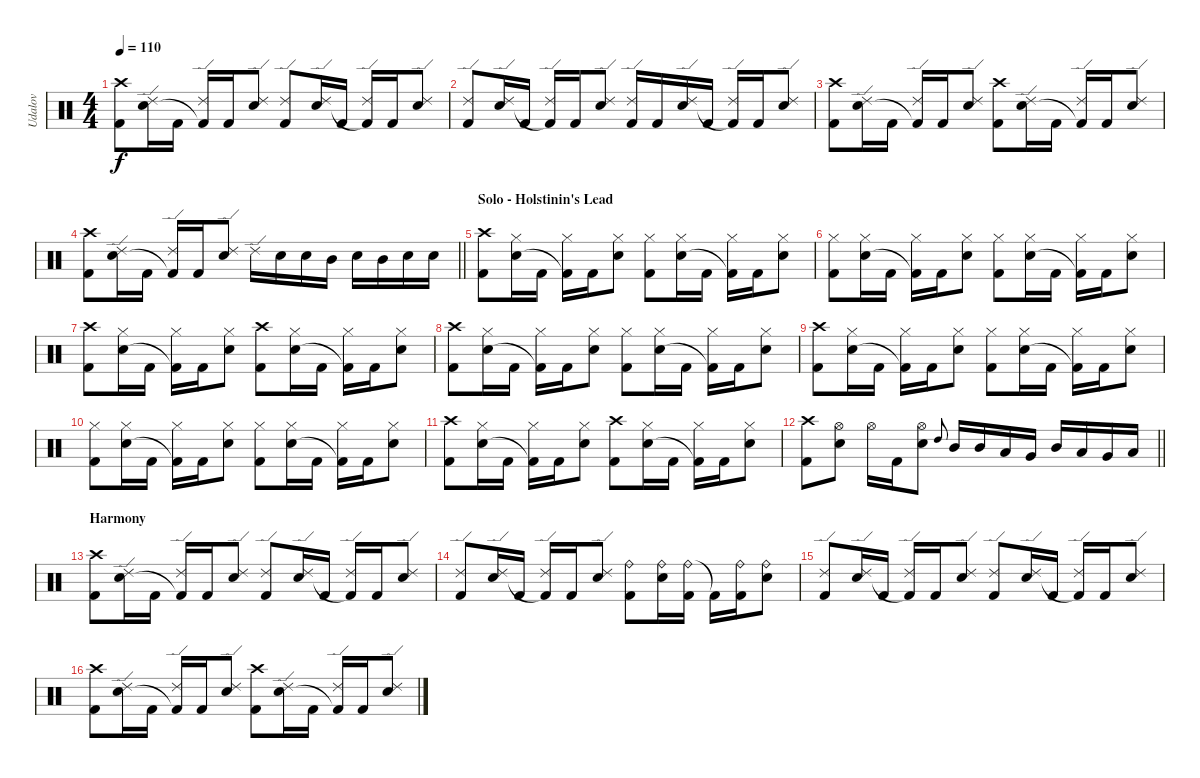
\track ("Udalov" "Udalov") {instrument percussion}
\staff {score}
\articulation defaults
\ts (4 4)
\tempo 110
\clef neutral
\ks c
("Crash high (hit)" "Kick (hit) 2").8{dy f} ("Ride (edge) 2" "Snare (hit) 2").16 "Kick (hit) 2".16 ("Ride (edge) 2" "Kick (hit) 2"{t}).16 "Kick (hit) 2".16 ("Ride (edge) 2" "Snare (hit) 2").8 ("Ride (edge) 2" "Kick (hit) 2").8 ("Ride (edge) 2" "Snare (hit) 2").16 "Kick (hit) 2".16 ("Ride (edge) 2" "Kick (hit) 2"{t}).16 "Kick (hit) 2".16 ("Ride (edge) 2" "Snare (hit) 2").8 |
("Ride (edge) 2" "Kick (hit) 2").8 ("Ride (edge) 2" "Snare (hit) 2").16 "Kick (hit) 2".16 ("Ride (edge) 2" "Kick (hit) 2"{t}).16 "Kick (hit) 2".16 ("Ride (edge) 2" "Snare (hit) 2").8 ("Ride (edge) 2" "Kick (hit) 2").16 "Kick (hit) 2".16 ("Ride (edge) 2" "Snare (hit) 2").16 "Kick (hit) 2".16 ("Ride (edge) 2" "Kick (hit) 2"{t}).16 "Kick (hit) 2".16 ("Ride (edge) 2" "Snare (hit) 2").8 |
("Crash high (hit)" "Kick (hit) 2").8 ("Ride (edge) 2" "Snare (hit) 2").16 "Kick (hit) 2".16 ("Ride (edge) 2" "Kick (hit) 2"{t}).16 "Kick (hit) 2".16 ("Ride (edge) 2" "Snare (hit) 2").8 ("Crash high (hit)" "Kick (hit) 2").8 ("Ride (edge) 2" "Snare (hit) 2").16 "Kick (hit) 2".16 ("Ride (edge) 2" "Kick (hit) 2"{t}).16 "Kick (hit) 2".16 ("Ride (edge) 2" "Snare (hit) 2").8 |
\barLineRight lightlight
("Crash high (hit)" "Kick (hit) 2").8 ("Ride (edge) 2" "Snare (hit) 2").16 "Kick (hit) 2".16 ("Ride (edge) 2" "Kick (hit) 2"{t}).16 "Kick (hit) 2".16 ("Ride (edge) 2" "Snare (hit) 2").8 "Ride (edge) 2".16 "Snare (hit) 2".16 "Snare (hit) 2".16 "Mid Tom (hit)".16 "Snare (hit) 2".16 "Mid Tom (hit)".16 "Snare (hit) 2".16 "Snare (hit) 2".16 |
\section ("" "Solo - Holstinin's Lead")
("Crash high (hit)" "Kick (hit) 2").8 ("Hi-Hat (closed)" "Snare (hit) 2").16 "Kick (hit) 2".16 ("Hi-Hat (closed)" "Kick (hit) 2"{t}).16 "Kick (hit) 2".16 ("Hi-Hat (closed)" "Snare (hit) 2").8 ("Hi-Hat (closed)" "Kick (hit) 2").8 ("Hi-Hat (closed)" "Snare (hit) 2").16 "Kick (hit) 2".16 ("Hi-Hat (closed)" "Kick (hit) 2"{t}).16 "Kick (hit) 2".16 ("Hi-Hat (closed)" "Snare (hit) 2").8 |
("Hi-Hat (closed)" "Kick (hit) 2").8 ("Hi-Hat (closed)" "Snare (hit) 2").16 "Kick (hit) 2".16 ("Hi-Hat (closed)" "Kick (hit) 2"{t}).16 "Kick (hit) 2".16 ("Hi-Hat (closed)" "Snare (hit) 2").8 ("Hi-Hat (closed)" "Kick (hit) 2").8 ("Hi-Hat (closed)" "Snare (hit) 2").16 "Kick (hit) 2".16 ("Hi-Hat (closed)" "Kick (hit) 2"{t}).16 "Kick (hit) 2".16 ("Hi-Hat (closed)" "Snare (hit) 2").8 |
("Crash high (hit)" "Kick (hit) 2").8 ("Hi-Hat (closed)" "Snare (hit) 2").16 "Kick (hit) 2".16 ("Hi-Hat (closed)" "Kick (hit) 2"{t}).16 "Kick (hit) 2".16 ("Hi-Hat (closed)" "Snare (hit) 2").8 ("Crash high (hit)" "Kick (hit) 2").8 ("Hi-Hat (closed)" "Snare (hit) 2").16 "Kick (hit) 2".16 ("Hi-Hat (closed)" "Kick (hit) 2"{t}).16 "Kick (hit) 2".16 ("Hi-Hat (closed)" "Snare (hit) 2").8 |
("Crash high (hit)" "Kick (hit) 2").8 ("Hi-Hat (closed)" "Snare (hit) 2").16 "Kick (hit) 2".16 ("Hi-Hat (closed)" "Kick (hit) 2"{t}).16 "Kick (hit) 2".16 ("Hi-Hat (closed)" "Snare (hit) 2").8 ("Hi-Hat (closed)" "Kick (hit) 2").8 ("Hi-Hat (closed)" "Snare (hit) 2").16 "Kick (hit) 2".16 ("Hi-Hat (closed)" "Kick (hit) 2"{t}).16 "Kick (hit) 2".16 ("Hi-Hat (closed)" "Snare (hit) 2").8 |
("Crash high (hit)" "Kick (hit) 2").8 ("Hi-Hat (closed)" "Snare (hit) 2").16 "Kick (hit) 2".16 ("Hi-Hat (closed)" "Kick (hit) 2"{t}).16 "Kick (hit) 2".16 ("Hi-Hat (closed)" "Snare (hit) 2").8 ("Hi-Hat (closed)" "Kick (hit) 2").8 ("Hi-Hat (closed)" "Snare (hit) 2").16 "Kick (hit) 2".16 ("Hi-Hat (closed)" "Kick (hit) 2"{t}).16 "Kick (hit) 2".16 ("Hi-Hat (closed)" "Snare (hit) 2").8 |
("Hi-Hat (closed)" "Kick (hit) 2").8 ("Hi-Hat (closed)" "Snare (hit) 2").16 "Kick (hit) 2".16 ("Hi-Hat (closed)" "Kick (hit) 2"{t}).16 "Kick (hit) 2".16 ("Hi-Hat (closed)" "Snare (hit) 2").8 ("Hi-Hat (closed)" "Kick (hit) 2").8 ("Hi-Hat (closed)" "Snare (hit) 2").16 "Kick (hit) 2".16 ("Hi-Hat (closed)" "Kick (hit) 2"{t}).16 "Kick (hit) 2".16 ("Hi-Hat (closed)" "Snare (hit) 2").8 |
("Crash high (hit)" "Kick (hit) 2").8 ("Hi-Hat (closed)" "Snare (hit) 2").16 "Kick (hit) 2".16 ("Hi-Hat (closed)" "Kick (hit) 2"{t}).16 "Kick (hit) 2".16 ("Hi-Hat (closed)" "Snare (hit) 2").8 ("Crash high (hit)" "Kick (hit) 2").8 ("Hi-Hat (closed)" "Snare (hit) 2").16 "Kick (hit) 2".16 ("Hi-Hat (closed)" "Kick (hit) 2"{t}).16 "Kick (hit) 2".16 ("Hi-Hat (closed)" "Snare (hit) 2").8 |
\barLineRight lightlight
("Crash high (hit)" "Kick (hit) 2").8 ("Hi-Hat (open)" "Snare (hit) 2").8 "Hi-Hat (open)".16 "Kick (hit) 2".16 ("Hi-Hat (open)" "Snare (hit) 2").8 "High Tom (hit)".8{gr onbeat} "Mid Tom (hit)".16 "Mid Tom (hit)".16 "Low Tom (hit)".16 "Very Low Tom (hit)".16 "Mid Tom (hit)".16 "Low Tom (hit)".16 "Very Low Tom (hit)".16 "Low Floor Tom (hit)".16 |
\section ("" "Harmony")
("Crash high (hit)" "Kick (hit) 2").8 ("Ride (edge) 2" "Snare (hit) 2").16 "Kick (hit) 2".16 ("Ride (edge) 2" "Kick (hit) 2"{t}).16 "Kick (hit) 2".16 ("Ride (edge) 2" "Snare (hit) 2").8 ("Ride (edge) 2" "Kick (hit) 2").8 ("Ride (edge) 2" "Snare (hit) 2").16 "Kick (hit) 2".16 ("Ride (edge) 2" "Kick (hit) 2"{t}).16 "Kick (hit) 2".16 ("Ride (edge) 2" "Snare (hit) 2").8 |
("Ride (edge) 2" "Kick (hit) 2").8 ("Ride (edge) 2" "Snare (hit) 2").16 "Kick (hit) 2".16 ("Ride (edge) 2" "Kick (hit) 2"{t}).16 "Kick (hit) 2".16 ("Ride (edge) 2" "Snare (hit) 2").8 ("Ride (bell)" "Kick (hit) 2").8 ("Ride (bell)" "Snare (hit) 2").16 ("Ride (bell)" "Kick (hit) 2").16 "Kick (hit) 2"{t}.16 ("Ride (bell)" "Kick (hit) 2").16 ("Ride (bell)" "Snare (hit) 2").8 |
("Ride (edge) 2" "Kick (hit) 2").8 ("Ride (edge) 2" "Snare (hit) 2").16 "Kick (hit) 2".16 ("Ride (edge) 2" "Kick (hit) 2"{t}).16 "Kick (hit) 2".16 ("Ride (edge) 2" "Snare (hit) 2").8 ("Ride (edge) 2" "Kick (hit) 2").8 ("Ride (edge) 2" "Snare (hit) 2").16 "Kick (hit) 2".16 ("Ride (edge) 2" "Kick (hit) 2"{t}).16 "Kick (hit) 2".16 ("Ride (edge) 2" "Snare (hit) 2").8 |
("Crash high (hit)" "Kick (hit) 2").8 ("Ride (edge) 2" "Snare (hit) 2").16 "Kick (hit) 2".16 ("Ride (edge) 2" "Kick (hit) 2"{t}).16 "Kick (hit) 2".16 ("Ride (edge) 2" "Snare (hit) 2").8 ("Crash high (hit)" "Kick (hit) 2").8 ("Ride (edge) 2" "Snare (hit) 2").16 "Kick (hit) 2".16 ("Ride (edge) 2" "Kick (hit) 2"{t}).16 "Kick (hit) 2".16 ("Ride (edge) 2" "Snare (hit) 2").8
